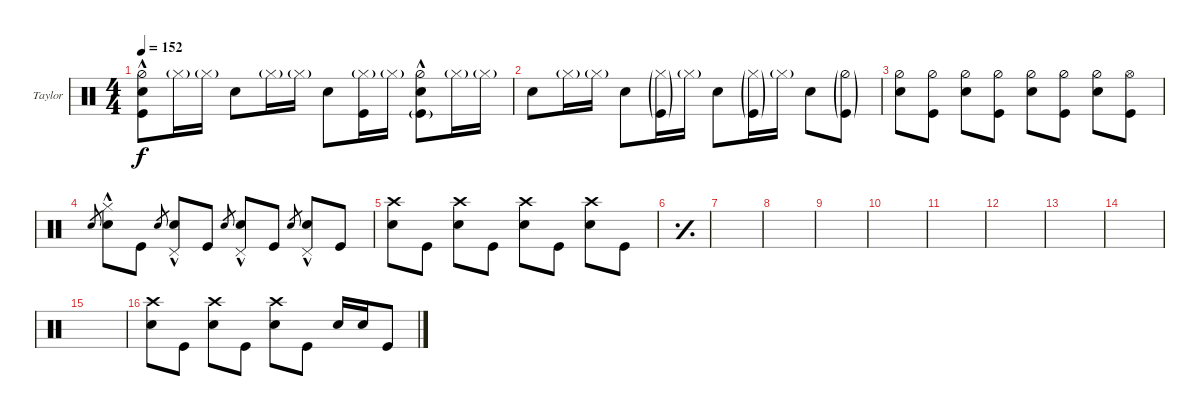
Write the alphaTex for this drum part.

\defaultSystemsLayout 4
\bracketExtendMode nobrackets
\firstSystemTrackNameOrientation horizontal
\otherSystemsTrackNameOrientation horizontal
\track ("Drums (Taylor Hawkins)" "Taylor") {instrument percussion}
\staff {score}
\articulation defaults
\ts (4 4)
\tempo 152
\clef neutral
\ks c
("Snare (hit) 2" "Hi-Hat (half)"{hac} "Kick (hit)").8{dy f} "Hi-Hat (closed)"{g}.16 "Hi-Hat (closed)"{g}.16 "Snare (hit) 2".8 "Hi-Hat (closed)"{g}.16 "Hi-Hat (closed)"{g}.16 "Snare (hit) 2".8 ("Hi-Hat (closed)"{g} "Kick (hit)").16 "Hi-Hat (closed)"{g}.16 ("Snare (hit) 2" "Kick (hit)"{g} "Hi-Hat (half)"{hac}).8 "Hi-Hat (closed)"{g}.16 "Hi-Hat (closed)"{g}.16 |
"Snare (hit) 2".8 "Hi-Hat (closed)"{g}.16 "Hi-Hat (closed)"{g}.16 "Snare (hit) 2".8 ("Hi-Hat (closed)"{g} "Kick (hit)"{g}).16 "Hi-Hat (closed)"{g}.16 "Snare (hit) 2".8 ("Hi-Hat (closed)"{g} "Kick (hit)"{g}).16 "Hi-Hat (closed)"{g}.16 "Snare (hit) 2".8 ("Hi-Hat (half)"{g} "Kick (hit)"{g}).8 |
("Hi-Hat (half)" "Snare (hit) 2").8 ("Hi-Hat (half)" "Kick (hit)").8 ("Hi-Hat (half)" "Snare (hit) 2").8 ("Hi-Hat (half)" "Kick (hit)").8 ("Hi-Hat (half)" "Snare (hit) 2").8 ("Hi-Hat (half)" "Kick (hit)").8 ("Hi-Hat (half)" "Snare (hit) 2").8 ("Hi-Hat (open)" "Kick (hit)").8 |
"Snare (hit) 2".8{gr} ("Snare (hit) 2"{hac} "Hi-Hat (closed)").8 "Kick (hit)".8 "Snare (hit) 2".8{gr} ("Snare (hit) 2"{hac} "Pedal Hi-Hat (hit)").8 "Kick (hit)".8 "Snare (hit) 2".8{gr} ("Snare (hit) 2"{hac} "Pedal Hi-Hat (hit)").8 "Kick (hit)".8 "Snare (hit) 2".8{gr} ("Snare (hit) 2"{hac} "Pedal Hi-Hat (hit)").8 "Kick (hit)".8 |
("Crash high (hit)" "Snare (hit) 2").8 "Kick (hit)".8 ("Crash high (hit)" "Snare (hit) 2").8 "Kick (hit)".8 ("Crash high (hit)" "Snare (hit) 2").8 "Kick (hit)".8 ("Crash high (hit)" "Snare (hit) 2").8 "Kick (hit)".8 |
\simile simple
|
|
|
|
|
|
|
|
|
|
\simile none
("Crash high (hit)" "Snare (hit) 2").8 "Kick (hit)".8 ("Crash high (hit)" "Snare (hit) 2").8 "Kick (hit)".8 ("Crash high (hit)" "Snare (hit) 2").8 "Kick (hit)".8 "Snare (hit) 2".16 "Snare (hit) 2".16 "Kick (hit)".8
